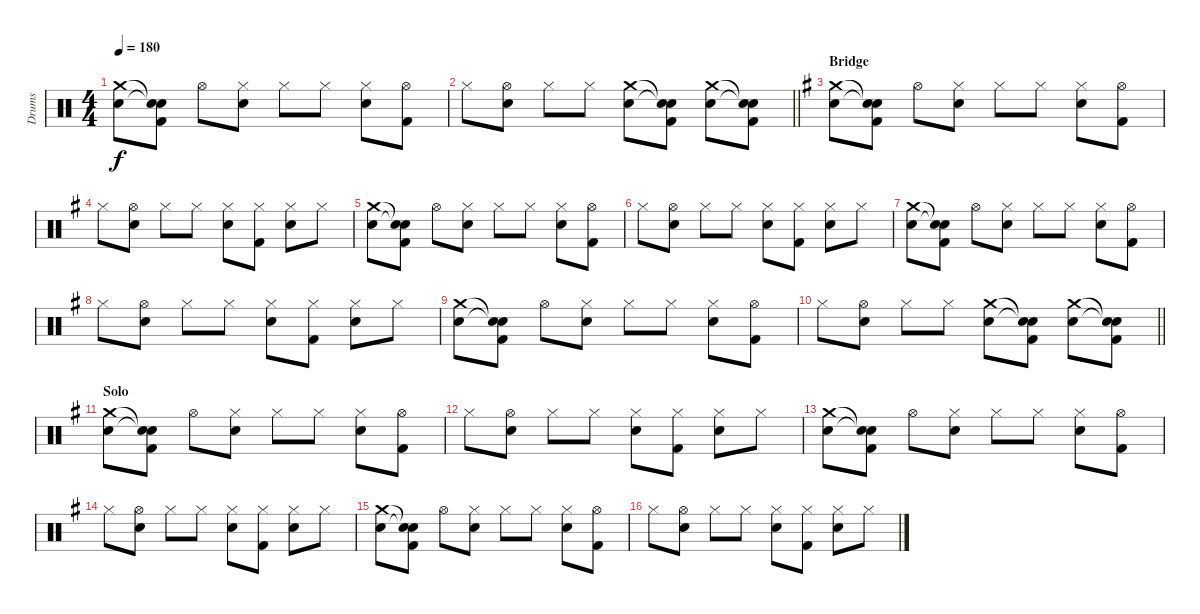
\track ("Drums" "Drums") {instrument percussion}
\staff {score}
\articulation defaults
\ts (4 4)
\tempo 180
\clef neutral
\ks c
("Crash medium (hit)" "Electric Snare (hit)").8{dy f} ("Snare (hit)"{t} "Snare (hit)"{t} "Kick (hit) 2").8 "Hi-Hat (open)".8 ("Hi-Hat (closed)" "Electric Snare (hit)").8 "Hi-Hat (closed)".8 "Hi-Hat (closed)".8 ("Hi-Hat (closed)" "Electric Snare (hit)").8 ("Hi-Hat (open)" "Kick (hit) 2").8 |
\barLineRight lightlight "Hi-Hat (closed)".8
("Hi-Hat (open)" "Electric Snare (hit)").8 "Hi-Hat (closed)".8 "Hi-Hat (closed)".8 ("Crash medium (hit)" "Electric Snare (hit)").8 ("Snare (hit)"{t} "Snare (hit)"{t} "Kick (hit) 2").8 ("Crash medium (hit)" "Electric Snare (hit)").8 ("Snare (hit)"{t} "Snare (hit)"{t} "Kick (hit) 2").8 |
\section ("" "Bridge")
\ks g
("Crash medium (hit)" "Electric Snare (hit)").8 ("Snare (hit)"{t} "Snare (hit)"{t} "Kick (hit) 2").8 "Hi-Hat (open)".8 ("Hi-Hat (closed)" "Electric Snare (hit)").8 "Hi-Hat (closed)".8 "Hi-Hat (closed)".8 ("Hi-Hat (closed)" "Electric Snare (hit)").8 ("Hi-Hat (open)" "Kick (hit) 2").8 |
"Hi-Hat (closed)".8 ("Hi-Hat (open)" "Electric Snare (hit)").8 "Hi-Hat (closed)".8 "Hi-Hat (closed)".8 ("Hi-Hat (closed)" "Electric Snare (hit)").8 ("Hi-Hat (closed)" "Kick (hit) 2").8 ("Hi-Hat (closed)" "Electric Snare (hit)").8 "Hi-Hat (closed)".8 |
("Crash medium (hit)" "Electric Snare (hit)").8 ("Snare (hit)"{t} "Snare (hit)"{t} "Kick (hit) 2").8 "Hi-Hat (open)".8 ("Hi-Hat (closed)" "Electric Snare (hit)").8 "Hi-Hat (closed)".8 "Hi-Hat (closed)".8 ("Hi-Hat (closed)" "Electric Snare (hit)").8 ("Hi-Hat (open)" "Kick (hit) 2").8 |
"Hi-Hat (closed)".8 ("Hi-Hat (open)" "Electric Snare (hit)").8 "Hi-Hat (closed)".8 "Hi-Hat (closed)".8 ("Hi-Hat (closed)" "Electric Snare (hit)").8 ("Hi-Hat (closed)" "Kick (hit) 2").8 ("Hi-Hat (closed)" "Electric Snare (hit)").8 "Hi-Hat (closed)".8 |
("Crash medium (hit)" "Electric Snare (hit)").8 ("Snare (hit)"{t} "Snare (hit)"{t} "Kick (hit) 2").8 "Hi-Hat (open)".8 ("Hi-Hat (closed)" "Electric Snare (hit)").8 "Hi-Hat (closed)".8 "Hi-Hat (closed)".8 ("Hi-Hat (closed)" "Electric Snare (hit)").8 ("Hi-Hat (open)" "Kick (hit) 2").8 |
"Hi-Hat (closed)".8 ("Hi-Hat (open)" "Electric Snare (hit)").8 "Hi-Hat (closed)".8 "Hi-Hat (closed)".8 ("Hi-Hat (closed)" "Electric Snare (hit)").8 ("Hi-Hat (closed)" "Kick (hit) 2").8 ("Hi-Hat (closed)" "Electric Snare (hit)").8 "Hi-Hat (closed)".8 |
("Crash medium (hit)" "Electric Snare (hit)").8 ("Snare (hit)"{t} "Snare (hit)"{t} "Kick (hit) 2").8 "Hi-Hat (open)".8 ("Hi-Hat (closed)" "Electric Snare (hit)").8 "Hi-Hat (closed)".8 "Hi-Hat (closed)".8 ("Hi-Hat (closed)" "Electric Snare (hit)").8 ("Hi-Hat (open)" "Kick (hit) 2").8 |
\barLineRight lightlight "Hi-Hat (closed)".8
("Hi-Hat (open)" "Electric Snare (hit)").8 "Hi-Hat (closed)".8 "Hi-Hat (closed)".8 ("Crash medium (hit)" "Electric Snare (hit)").8 ("Snare (hit)"{t} "Snare (hit)"{t} "Kick (hit) 2").8 ("Crash medium (hit)" "Electric Snare (hit)").8 ("Snare (hit)"{t} "Snare (hit)"{t} "Kick (hit) 2").8 |
\section ("" "Solo")
("Crash medium (hit)" "Electric Snare (hit)").8 ("Snare (hit)"{t} "Snare (hit)"{t} "Kick (hit) 2").8 "Hi-Hat (open)".8 ("Hi-Hat (closed)" "Electric Snare (hit)").8 "Hi-Hat (closed)".8 "Hi-Hat (closed)".8 ("Hi-Hat (closed)" "Electric Snare (hit)").8 ("Hi-Hat (open)" "Kick (hit) 2").8 |
"Hi-Hat (closed)".8 ("Hi-Hat (open)" "Electric Snare (hit)").8 "Hi-Hat (closed)".8 "Hi-Hat (closed)".8 ("Hi-Hat (closed)" "Electric Snare (hit)").8 ("Hi-Hat (closed)" "Kick (hit) 2").8 ("Hi-Hat (closed)" "Electric Snare (hit)").8 "Hi-Hat (closed)".8 |
("Crash medium (hit)" "Electric Snare (hit)").8 ("Snare (hit)"{t} "Snare (hit)"{t} "Kick (hit) 2").8 "Hi-Hat (open)".8 ("Hi-Hat (closed)" "Electric Snare (hit)").8 "Hi-Hat (closed)".8 "Hi-Hat (closed)".8 ("Hi-Hat (closed)" "Electric Snare (hit)").8 ("Hi-Hat (open)" "Kick (hit) 2").8 |
"Hi-Hat (closed)".8 ("Hi-Hat (open)" "Electric Snare (hit)").8 "Hi-Hat (closed)".8 "Hi-Hat (closed)".8 ("Hi-Hat (closed)" "Electric Snare (hit)").8 ("Hi-Hat (closed)" "Kick (hit) 2").8 ("Hi-Hat (closed)" "Electric Snare (hit)").8 "Hi-Hat (closed)".8 |
("Crash medium (hit)" "Electric Snare (hit)").8 ("Snare (hit)"{t} "Snare (hit)"{t} "Kick (hit) 2").8 "Hi-Hat (open)".8 ("Hi-Hat (closed)" "Electric Snare (hit)").8 "Hi-Hat (closed)".8 "Hi-Hat (closed)".8 ("Hi-Hat (closed)" "Electric Snare (hit)").8 ("Hi-Hat (open)" "Kick (hit) 2").8 |
"Hi-Hat (closed)".8 ("Hi-Hat (open)" "Electric Snare (hit)").8 "Hi-Hat (closed)".8 "Hi-Hat (closed)".8 ("Hi-Hat (closed)" "Electric Snare (hit)").8 ("Hi-Hat (closed)" "Kick (hit) 2").8 ("Hi-Hat (closed)" "Electric Snare (hit)").8 "Hi-Hat (closed)".8
